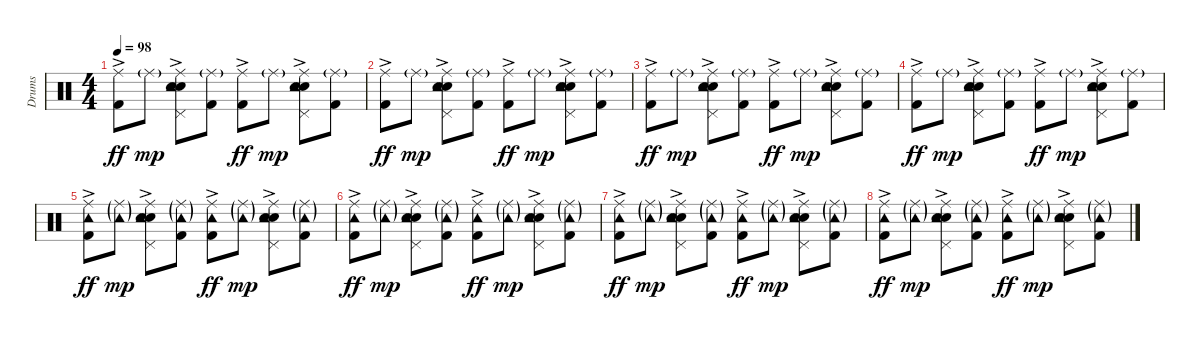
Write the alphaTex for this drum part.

\track ("Drums" "Drums") {instrument percussion}
\staff {score}
\articulation defaults
\ts (4 4)
\tempo 98
\clef neutral
\ks c
("Kick (hit) 2"{ac} "Ride (middle)").8{dy ff} "Ride (middle)"{g}.8{dy mp} ("Electric Snare (hit)"{ac} "Snare (hit) 2" "Pedal Hi-Hat (hit)" "Tambourine (hit)" "Ride (middle)").8 ("Kick (hit) 2" "Ride (middle)"{g}).8 ("Kick (hit) 2"{ac} "Ride (middle)").8{dy ff} "Ride (middle)"{g}.8{dy mp} ("Electric Snare (hit)"{ac} "Snare (hit) 2" "Pedal Hi-Hat (hit)" "Tambourine (hit)" "Ride (middle)").8 ("Kick (hit) 2" "Ride (middle)"{g}).8 |
("Kick (hit) 2"{ac} "Ride (middle)").8{dy ff} "Ride (middle)"{g}.8{dy mp} ("Electric Snare (hit)"{ac} "Snare (hit) 2" "Pedal Hi-Hat (hit)" "Tambourine (hit)" "Ride (middle)").8 ("Kick (hit) 2" "Ride (middle)"{g}).8 ("Kick (hit) 2"{ac} "Ride (middle)").8{dy ff} "Ride (middle)"{g}.8{dy mp} ("Electric Snare (hit)"{ac} "Snare (hit) 2" "Pedal Hi-Hat (hit)" "Tambourine (hit)" "Ride (middle)").8 ("Kick (hit) 2" "Ride (middle)"{g}).8 |
("Kick (hit) 2"{ac} "Ride (middle)").8{dy ff} "Ride (middle)"{g}.8{dy mp} ("Electric Snare (hit)"{ac} "Snare (hit) 2" "Pedal Hi-Hat (hit)" "Tambourine (hit)" "Ride (middle)").8 ("Kick (hit) 2" "Ride (middle)"{g}).8 ("Kick (hit) 2"{ac} "Ride (middle)").8{dy ff} "Ride (middle)"{g}.8{dy mp} ("Electric Snare (hit)"{ac} "Snare (hit) 2" "Pedal Hi-Hat (hit)" "Tambourine (hit)" "Ride (middle)").8 ("Kick (hit) 2" "Ride (middle)"{g}).8 |
("Kick (hit) 2"{ac} "Ride (middle)").8{dy ff} "Ride (middle)"{g}.8{dy mp} ("Electric Snare (hit)"{ac} "Snare (hit) 2" "Pedal Hi-Hat (hit)" "Tambourine (hit)" "Ride (middle)").8 ("Kick (hit) 2" "Ride (middle)"{g}).8 ("Kick (hit) 2"{ac} "Ride (middle)").8{dy ff} "Ride (middle)"{g}.8{dy mp} ("Electric Snare (hit)"{ac} "Snare (hit) 2" "Pedal Hi-Hat (hit)" "Tambourine (hit)" "Ride (middle)").8 ("Kick (hit) 2" "Ride (middle)"{g}).8 |
("Kick (hit) 2"{ac} "Tambourine (hit)" "Ride (middle)").8{dy ff} ("Tambourine (hit)"{g} "Ride (middle)"{g}).8{dy mp} ("Electric Snare (hit)"{ac} "Snare (hit) 2" "Pedal Hi-Hat (hit)" "Tambourine (hit)" "Ride (middle)").8 ("Kick (hit) 2" "Tambourine (hit)"{g} "Ride (middle)"{g}).8 ("Kick (hit) 2"{ac} "Tambourine (hit)" "Ride (middle)").8{dy ff} ("Tambourine (hit)"{g} "Ride (middle)"{g}).8{dy mp} ("Electric Snare (hit)"{ac} "Snare (hit) 2" "Pedal Hi-Hat (hit)" "Tambourine (hit)" "Ride (middle)").8 ("Kick (hit) 2" "Tambourine (hit)"{g} "Ride (middle)"{g}).8 |
("Kick (hit) 2"{ac} "Tambourine (hit)" "Ride (middle)").8{dy ff} ("Tambourine (hit)"{g} "Ride (middle)"{g}).8{dy mp} ("Electric Snare (hit)"{ac} "Snare (hit) 2" "Pedal Hi-Hat (hit)" "Tambourine (hit)" "Ride (middle)").8 ("Kick (hit) 2" "Tambourine (hit)"{g} "Ride (middle)"{g}).8 ("Kick (hit) 2"{ac} "Tambourine (hit)" "Ride (middle)").8{dy ff} ("Tambourine (hit)"{g} "Ride (middle)"{g}).8{dy mp} ("Electric Snare (hit)"{ac} "Snare (hit) 2" "Pedal Hi-Hat (hit)" "Tambourine (hit)" "Ride (middle)").8 ("Kick (hit) 2" "Tambourine (hit)"{g} "Ride (middle)"{g}).8 |
("Kick (hit) 2"{ac} "Tambourine (hit)" "Ride (middle)").8{dy ff} ("Tambourine (hit)"{g} "Ride (middle)"{g}).8{dy mp} ("Electric Snare (hit)"{ac} "Snare (hit) 2" "Pedal Hi-Hat (hit)" "Tambourine (hit)" "Ride (middle)").8 ("Kick (hit) 2" "Tambourine (hit)"{g} "Ride (middle)"{g}).8 ("Kick (hit) 2"{ac} "Tambourine (hit)" "Ride (middle)").8{dy ff} ("Tambourine (hit)"{g} "Ride (middle)"{g}).8{dy mp} ("Electric Snare (hit)"{ac} "Snare (hit) 2" "Pedal Hi-Hat (hit)" "Tambourine (hit)" "Ride (middle)").8 ("Kick (hit) 2" "Tambourine (hit)"{g} "Ride (middle)"{g}).8 |
("Kick (hit) 2"{ac} "Tambourine (hit)" "Ride (middle)").8{dy ff} ("Tambourine (hit)"{g} "Ride (middle)"{g}).8{dy mp} ("Electric Snare (hit)"{ac} "Snare (hit) 2" "Pedal Hi-Hat (hit)" "Tambourine (hit)" "Ride (middle)").8 ("Kick (hit) 2" "Tambourine (hit)"{g} "Ride (middle)"{g}).8 ("Kick (hit) 2"{ac} "Tambourine (hit)" "Ride (middle)").8{dy ff} ("Tambourine (hit)"{g} "Ride (middle)"{g}).8{dy mp} ("Electric Snare (hit)"{ac} "Snare (hit) 2" "Pedal Hi-Hat (hit)" "Tambourine (hit)" "Ride (middle)").8 ("Kick (hit) 2" "Tambourine (hit)"{g} "Ride (middle)"{g}).8
